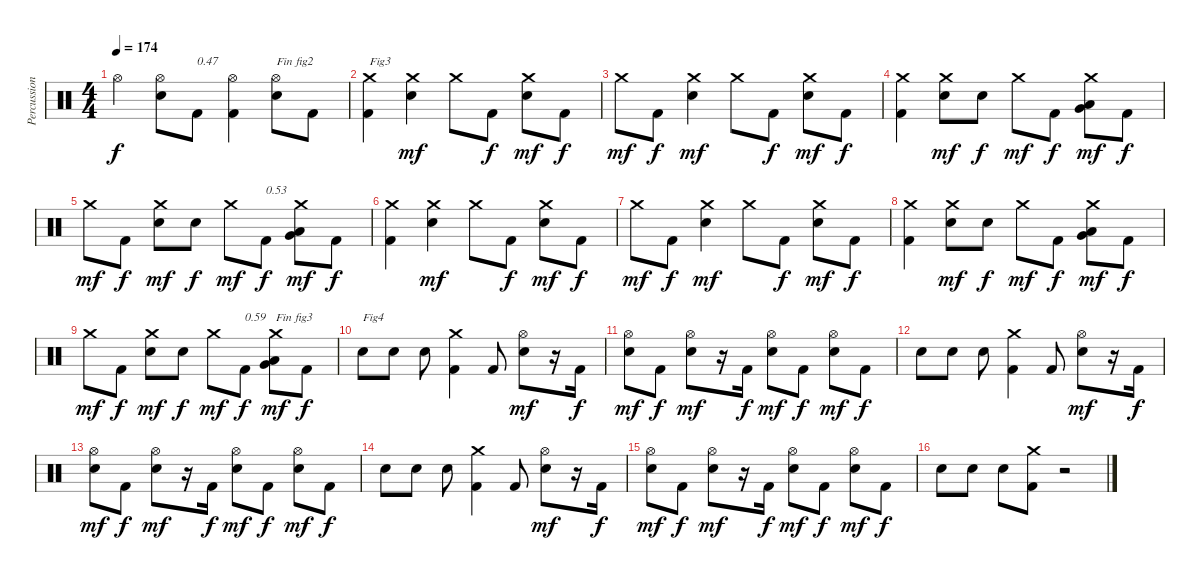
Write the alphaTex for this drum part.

\track ("Percussions" "Percussion") {instrument percussion}
\staff {score}
\articulation defaults
\ts (4 4)
\tempo 174
\clef neutral
\ks c "Hi-Hat (open)".4{dy f}
("Electric Snare (hit)" "Hi-Hat (open)").8 "Kick (hit) 2".8{txt "0.47"} ("Kick (hit) 2" "Hi-Hat (open)").4 ("Electric Snare (hit)" "Hi-Hat (open)").8{txt "Fin fig2"} "Kick (hit) 2".8 |
("Kick (hit) 2" "Crash medium (hit)").4{txt "Fig3"} ("Electric Snare (hit)" "Crash medium (hit)").4{dy mf} "Crash medium (hit)".8 "Kick (hit) 2".8{dy f} ("Electric Snare (hit)" "Crash medium (hit)").8{dy mf} "Kick (hit) 2".8{dy f} |
"Crash medium (hit)".8{dy mf} "Kick (hit) 2".8{dy f} ("Electric Snare (hit)" "Crash medium (hit)").4{dy mf} "Crash medium (hit)".8 "Kick (hit) 2".8{dy f} ("Electric Snare (hit)" "Crash medium (hit)").8{dy mf} "Kick (hit) 2".8{dy f} |
("Kick (hit) 2" "Crash medium (hit)").4 ("Electric Snare (hit)" "Crash medium (hit)").8{dy mf} "Electric Snare (hit)".8{dy f} "Crash medium (hit)".8{dy mf} "Kick (hit) 2".8{dy f} ("Very Low Tom (hit)" "Low Floor Tom (hit)" "Crash medium (hit)").8{dy mf} "Kick (hit) 2".8{dy f} |
"Crash medium (hit)".8{dy mf} "Kick (hit) 2".8{dy f} ("Electric Snare (hit)" "Crash medium (hit)").8{dy mf} "Electric Snare (hit)".8{dy f} "Crash medium (hit)".8{dy mf} "Kick (hit) 2".8{txt "0.53" dy f} ("Low Tom (hit)" "Very Low Tom (hit)" "Crash medium (hit)").8{dy mf} "Kick (hit) 2".8{dy f} |
("Kick (hit) 2" "Crash medium (hit)").4 ("Electric Snare (hit)" "Crash medium (hit)").4{dy mf} "Crash medium (hit)".8 "Kick (hit) 2".8{dy f} ("Electric Snare (hit)" "Crash medium (hit)").8{dy mf} "Kick (hit) 2".8{dy f} |
"Crash medium (hit)".8{dy mf} "Kick (hit) 2".8{dy f} ("Electric Snare (hit)" "Crash medium (hit)").4{dy mf} "Crash medium (hit)".8 "Kick (hit) 2".8{dy f} ("Electric Snare (hit)" "Crash medium (hit)").8{dy mf} "Kick (hit) 2".8{dy f} |
("Kick (hit) 2" "Crash medium (hit)").4 ("Electric Snare (hit)" "Crash medium (hit)").8{dy mf} "Electric Snare (hit)".8{dy f} "Crash medium (hit)".8{dy mf} "Kick (hit) 2".8{dy f} ("Very Low Tom (hit)" "Low Floor Tom (hit)" "Crash medium (hit)").8{dy mf} "Kick (hit) 2".8{dy f} |
"Crash medium (hit)".8{dy mf} "Kick (hit) 2".8{dy f} ("Electric Snare (hit)" "Crash medium (hit)").8{dy mf} "Electric Snare (hit)".8{dy f} "Crash medium (hit)".8{dy mf} "Kick (hit) 2".8{txt "0.59" dy f} ("Low Tom (hit)" "Very Low Tom (hit)" "Crash medium (hit)").8{txt "Fin fig3" dy mf} "Kick (hit) 2".8{dy f} |
"Electric Snare (hit)".8{txt "Fig4"} "Electric Snare (hit)".8 "Electric Snare (hit)".8 ("Kick (hit) 2" "Crash medium (hit)").4 "Kick (hit) 2".8 ("Electric Snare (hit)" "Hi-Hat (open)").8{dy mf} r.16 "Kick (hit) 2".16{dy f} |
("Electric Snare (hit)" "Hi-Hat (open)").8{dy mf} "Kick (hit) 2".8{dy f} ("Electric Snare (hit)" "Hi-Hat (open)").8{dy mf} r.16 "Kick (hit) 2".16{dy f} ("Electric Snare (hit)" "Hi-Hat (open)").8{dy mf} "Kick (hit) 2".8{dy f} ("Electric Snare (hit)" "Hi-Hat (open)").8{dy mf} "Kick (hit) 2".8{dy f} |
"Electric Snare (hit)".8 "Electric Snare (hit)".8 "Electric Snare (hit)".8 ("Kick (hit) 2" "Crash medium (hit)").4 "Kick (hit) 2".8 ("Electric Snare (hit)" "Hi-Hat (open)").8{dy mf} r.16 "Kick (hit) 2".16{dy f} |
("Electric Snare (hit)" "Hi-Hat (open)").8{dy mf} "Kick (hit) 2".8{dy f} ("Electric Snare (hit)" "Hi-Hat (open)").8{dy mf} r.16 "Kick (hit) 2".16{dy f} ("Electric Snare (hit)" "Hi-Hat (open)").8{dy mf} "Kick (hit) 2".8{dy f} ("Electric Snare (hit)" "Hi-Hat (open)").8{dy mf} "Kick (hit) 2".8{dy f} |
"Electric Snare (hit)".8 "Electric Snare (hit)".8 "Electric Snare (hit)".8 ("Kick (hit) 2" "Crash medium (hit)").4 "Kick (hit) 2".8 ("Electric Snare (hit)" "Hi-Hat (open)").8{dy mf} r.16 "Kick (hit) 2".16{dy f} |
("Electric Snare (hit)" "Hi-Hat (open)").8{dy mf} "Kick (hit) 2".8{dy f} ("Electric Snare (hit)" "Hi-Hat (open)").8{dy mf} r.16 "Kick (hit) 2".16{dy f} ("Electric Snare (hit)" "Hi-Hat (open)").8{dy mf} "Kick (hit) 2".8{dy f} ("Electric Snare (hit)" "Hi-Hat (open)").8{dy mf} "Kick (hit) 2".8{dy f} |
"Electric Snare (hit)".8 "Electric Snare (hit)".8 "Electric Snare (hit)".8 ("Kick (hit) 2" "Crash medium (hit)").8 r.2
